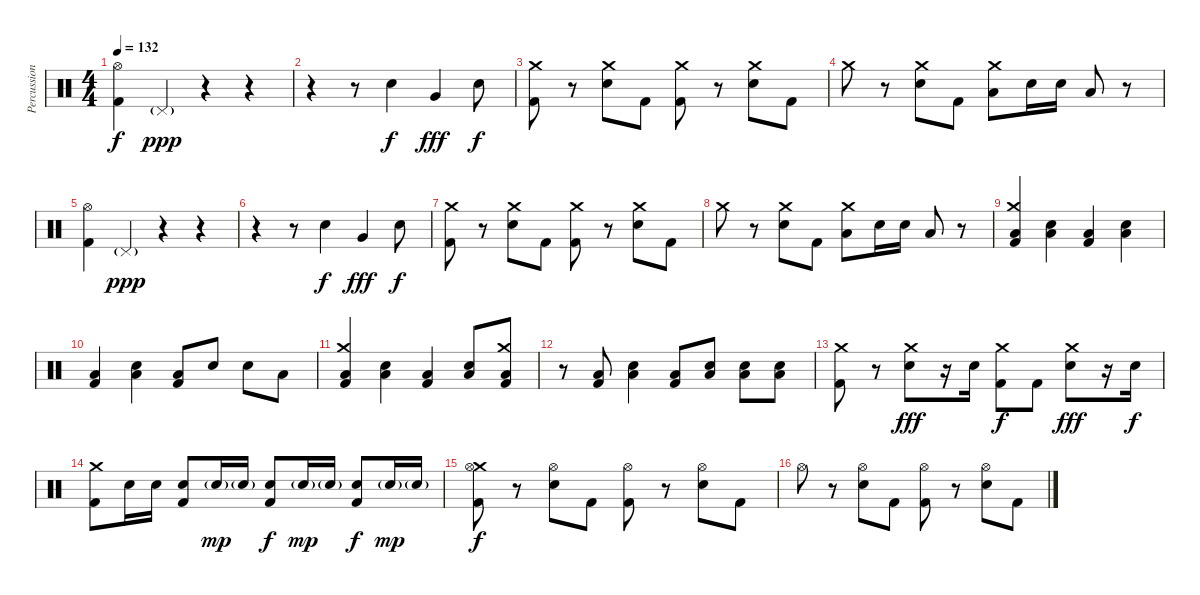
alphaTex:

\track ("Percussion" "Percussion") {instrument percussion}
\staff {score}
\articulation defaults
\ts (4 4)
\tempo 132
\clef neutral
\ks c
("Hi-Hat (open)" "Kick (hit) 2").4{dy f} "Pedal Hi-Hat (hit)"{g}.4{dy ppp} r.4 r.4 |
r.4 r.8 "Snare (hit) 2".4{dy f} "Very Low Tom (hit)".4{dy fff} "Snare (hit) 2".8{dy f} |
("Crash medium (hit)" "Kick (hit) 2").8 r.8 ("Crash medium (hit)" "Snare (hit) 2").8 "Kick (hit) 2".8 ("Crash medium (hit)" "Kick (hit) 2").8 r.8 ("Crash medium (hit)" "Snare (hit) 2").8 "Kick (hit) 2".8 |
"Crash medium (hit)".8 r.8 ("Crash medium (hit)" "Snare (hit) 2").8 "Kick (hit) 2".8 ("Crash medium (hit)" "Low Floor Tom (hit)").8 "Snare (hit) 2".16 "Snare (hit) 2".16 "Low Floor Tom (hit)".8 r.8 |
("Hi-Hat (open)" "Kick (hit) 2").4 "Pedal Hi-Hat (hit)"{g}.4{dy ppp} r.4 r.4 |
r.4 r.8 "Snare (hit) 2".4{dy f} "Very Low Tom (hit)".4{dy fff} "Snare (hit) 2".8{dy f} |
("Crash medium (hit)" "Kick (hit) 2").8 r.8 ("Crash medium (hit)" "Snare (hit) 2").8 "Kick (hit) 2".8 ("Crash medium (hit)" "Kick (hit) 2").8 r.8 ("Crash medium (hit)" "Snare (hit) 2").8 "Kick (hit) 2".8 |
"Crash medium (hit)".8 r.8 ("Crash medium (hit)" "Snare (hit) 2").8 "Kick (hit) 2".8 ("Crash medium (hit)" "Low Floor Tom (hit)").8 "Snare (hit) 2".16 "Snare (hit) 2".16 "Low Floor Tom (hit)".8 r.8 |
("Crash medium (hit)" "Low Floor Tom (hit)" "Kick (hit) 2").4 ("Snare (hit) 2" "Low Floor Tom (hit)").4 ("Low Floor Tom (hit)" "Kick (hit) 2").4 ("Snare (hit) 2" "Low Floor Tom (hit)").4 |
("Low Floor Tom (hit)" "Kick (hit) 2").4 ("Snare (hit) 2" "Low Floor Tom (hit)").4 ("Low Floor Tom (hit)" "Kick (hit) 2").8 "Snare (hit) 2".8 "Snare (hit) 2".8 "Low Floor Tom (hit)".8 |
("Crash medium (hit)" "Low Floor Tom (hit)" "Kick (hit) 2").4 ("Snare (hit) 2" "Low Floor Tom (hit)").4 ("Low Floor Tom (hit)" "Kick (hit) 2").4 ("Snare (hit) 2" "Low Floor Tom (hit)").8 ("Crash medium (hit)" "Low Floor Tom (hit)" "Kick (hit) 2").8 |
r.8 ("Low Floor Tom (hit)" "Kick (hit) 2").8 ("Snare (hit) 2" "Low Floor Tom (hit)").4 ("Low Floor Tom (hit)" "Kick (hit) 2").8 ("Snare (hit) 2" "Low Floor Tom (hit)").8 ("Snare (hit) 2" "Low Floor Tom (hit)").8 ("Snare (hit) 2" "Low Floor Tom (hit)").8 |
("Crash medium (hit)" "Kick (hit) 2").8 r.8 ("Crash medium (hit)" "Snare (hit) 2").8{dy fff} r.16 "Snare (hit) 2".16 ("Crash medium (hit)" "Kick (hit) 2").8{dy f} "Kick (hit) 2".8 ("Crash medium (hit)" "Snare (hit) 2").8{dy fff} r.16 "Snare (hit) 2".16{dy f} |
("Crash medium (hit)" "Kick (hit) 2").8 "Snare (hit) 2".16 "Snare (hit) 2".16 ("Snare (hit) 2" "Kick (hit) 2").8 "Snare (hit) 2"{g}.16{dy mp} "Snare (hit) 2"{g}.16 ("Snare (hit) 2" "Kick (hit) 2").8{dy f} "Snare (hit) 2"{g}.16{dy mp} "Snare (hit) 2"{g}.16 ("Snare (hit) 2" "Kick (hit) 2").8{dy f} "Snare (hit) 2"{g}.16{dy mp} "Snare (hit) 2"{g}.16 |
("Crash medium (hit)" "Hi-Hat (open)" "Kick (hit) 2").8{dy f} r.8 ("Hi-Hat (open)" "Snare (hit) 2").8 "Kick (hit) 2".8 ("Hi-Hat (open)" "Kick (hit) 2").8 r.8 ("Hi-Hat (open)" "Snare (hit) 2").8 "Kick (hit) 2".8 |
"Hi-Hat (open)".8 r.8 ("Hi-Hat (open)" "Snare (hit) 2").8 "Kick (hit) 2".8 ("Hi-Hat (open)" "Kick (hit) 2").8 r.8 ("Hi-Hat (open)" "Snare (hit) 2").8 "Kick (hit) 2".8
